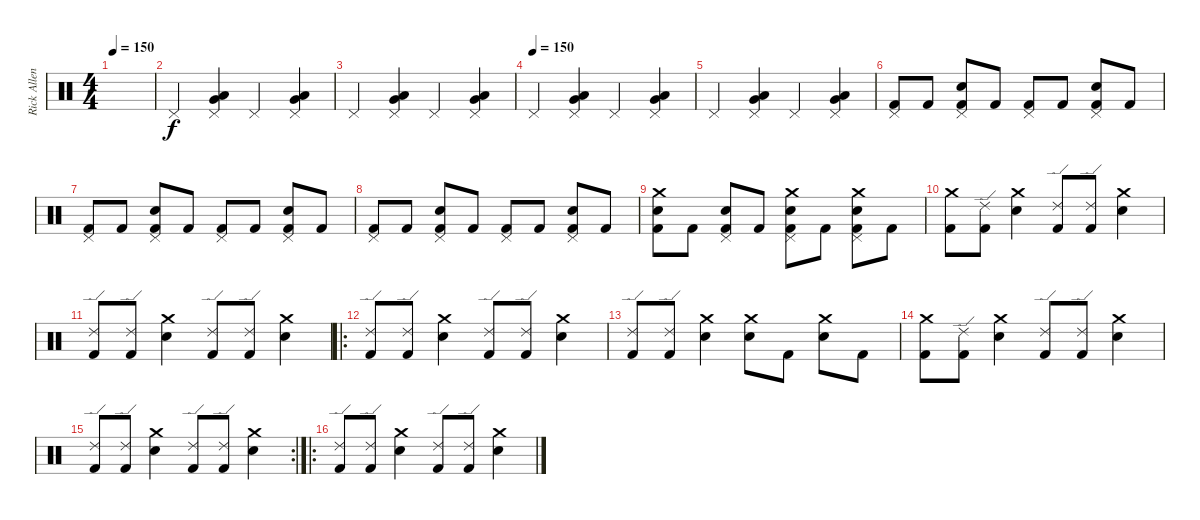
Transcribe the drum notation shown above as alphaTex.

\track ("Rick Allen" "Rick Allen") {instrument percussion}
\staff {score}
\articulation defaults
\ts (4 4)
\tempo 150
\clef neutral
\ks c
|
"Pedal Hi-Hat (hit)".4 ("Very Low Tom (hit)" "Low Tom (hit)" "Pedal Hi-Hat (hit)").4 "Pedal Hi-Hat (hit)".4 ("Very Low Tom (hit)" "Low Tom (hit)" "Pedal Hi-Hat (hit)").4 |
"Pedal Hi-Hat (hit)".4 ("Very Low Tom (hit)" "Low Tom (hit)" "Pedal Hi-Hat (hit)").4 "Pedal Hi-Hat (hit)".4 ("Very Low Tom (hit)" "Low Tom (hit)" "Pedal Hi-Hat (hit)").4 |
\tempo (150)
"Pedal Hi-Hat (hit)".4 ("Very Low Tom (hit)" "Low Tom (hit)" "Pedal Hi-Hat (hit)").4 "Pedal Hi-Hat (hit)".4 ("Very Low Tom (hit)" "Low Tom (hit)" "Pedal Hi-Hat (hit)").4 |
"Pedal Hi-Hat (hit)".4 ("Very Low Tom (hit)" "Low Tom (hit)" "Pedal Hi-Hat (hit)").4 "Pedal Hi-Hat (hit)".4 ("Very Low Tom (hit)" "Low Tom (hit)" "Pedal Hi-Hat (hit)").4 |
("Pedal Hi-Hat (hit)" "Kick (hit) 2").8 "Kick (hit) 2".8 ("Snare (hit) 2" "Pedal Hi-Hat (hit)" "Kick (hit) 2").8 "Kick (hit) 2".8 ("Pedal Hi-Hat (hit)" "Kick (hit) 2").8 "Kick (hit) 2".8 ("Snare (hit) 2" "Pedal Hi-Hat (hit)" "Kick (hit) 2").8 "Kick (hit) 2".8 |
("Pedal Hi-Hat (hit)" "Kick (hit) 2").8 "Kick (hit) 2".8 ("Snare (hit) 2" "Pedal Hi-Hat (hit)" "Kick (hit) 2").8 "Kick (hit) 2".8 ("Pedal Hi-Hat (hit)" "Kick (hit) 2").8 "Kick (hit) 2".8 ("Snare (hit) 2" "Pedal Hi-Hat (hit)" "Kick (hit) 2").8 "Kick (hit) 2".8 |
("Pedal Hi-Hat (hit)" "Kick (hit) 2").8 "Kick (hit) 2".8 ("Snare (hit) 2" "Pedal Hi-Hat (hit)" "Kick (hit) 2").8 "Kick (hit) 2".8 ("Pedal Hi-Hat (hit)" "Kick (hit) 2").8 "Kick (hit) 2".8 ("Snare (hit) 2" "Pedal Hi-Hat (hit)" "Kick (hit) 2").8 "Kick (hit) 2".8 |
("Crash medium (hit)" "Snare (hit) 2" "Kick (hit) 2").8 "Kick (hit) 2".8 ("Snare (hit) 2" "Pedal Hi-Hat (hit)" "Kick (hit) 2").8 "Kick (hit) 2".8 ("Crash medium (hit)" "Snare (hit) 2" "Pedal Hi-Hat (hit)" "Kick (hit) 2").8 "Kick (hit) 2".8 ("Crash medium (hit)" "Snare (hit) 2" "Pedal Hi-Hat (hit)" "Kick (hit) 2").8 "Kick (hit) 2".8 |
("Crash medium (hit)" "Kick (hit) 2").8 ("Ride (edge) 2" "Kick (hit) 2").8 ("Crash medium (hit)" "Snare (hit) 2").4 ("Ride (edge) 2" "Kick (hit) 2").8 ("Ride (edge) 2" "Kick (hit) 2").8 ("Crash medium (hit)" "Snare (hit) 2").4 |
("Ride (edge) 2" "Kick (hit) 2").8 ("Ride (edge) 2" "Kick (hit) 2").8 ("Crash medium (hit)" "Snare (hit) 2").4 ("Ride (edge) 2" "Kick (hit) 2").8 ("Ride (edge) 2" "Kick (hit) 2").8 ("Crash medium (hit)" "Snare (hit) 2").4 |
\ro
("Ride (edge) 2" "Kick (hit) 2").8 ("Ride (edge) 2" "Kick (hit) 2").8 ("Crash medium (hit)" "Snare (hit) 2").4 ("Ride (edge) 2" "Kick (hit) 2").8 ("Ride (edge) 2" "Kick (hit) 2").8 ("Crash medium (hit)" "Snare (hit) 2").4 |
("Ride (edge) 2" "Kick (hit) 2").8 ("Ride (edge) 2" "Kick (hit) 2").8 ("Crash medium (hit)" "Snare (hit) 2").4 ("Crash medium (hit)" "Snare (hit) 2").8 "Kick (hit) 2".8 ("Crash medium (hit)" "Snare (hit) 2").8 "Kick (hit) 2".8 |
("Crash medium (hit)" "Kick (hit) 2").8 ("Ride (edge) 2" "Kick (hit) 2").8 ("Crash medium (hit)" "Snare (hit) 2").4 ("Ride (edge) 2" "Kick (hit) 2").8 ("Ride (edge) 2" "Kick (hit) 2").8 ("Crash medium (hit)" "Snare (hit) 2").4 |
\rc 2
("Ride (edge) 2" "Kick (hit) 2").8 ("Ride (edge) 2" "Kick (hit) 2").8 ("Crash medium (hit)" "Snare (hit) 2").4 ("Ride (edge) 2" "Kick (hit) 2").8 ("Ride (edge) 2" "Kick (hit) 2").8 ("Crash medium (hit)" "Snare (hit) 2").4 |
\ro
("Ride (edge) 2" "Kick (hit) 2").8 ("Ride (edge) 2" "Kick (hit) 2").8 ("Crash medium (hit)" "Snare (hit) 2").4 ("Ride (edge) 2" "Kick (hit) 2").8 ("Ride (edge) 2" "Kick (hit) 2").8 ("Crash medium (hit)" "Snare (hit) 2").4
